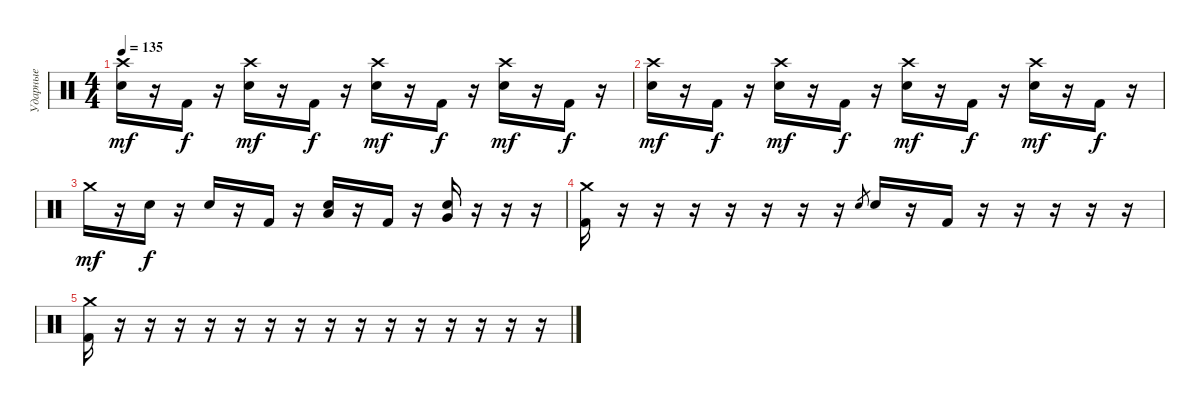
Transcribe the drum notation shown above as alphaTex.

\track ("Ударные" "Ударные") {instrument percussion}
\staff {score}
\articulation defaults
\ts (4 4)
\tempo 135
\clef neutral
\ks c
("Crash high (hit)" "Electric Snare (hit)").16{dy mf} r.16 "Kick (hit) 2".16{dy f} r.16 ("Crash high (hit)" "Electric Snare (hit)").16{dy mf} r.16 "Kick (hit) 2".16{dy f} r.16 ("Crash high (hit)" "Electric Snare (hit)").16{dy mf} r.16 "Kick (hit) 2".16{dy f} r.16 ("Crash high (hit)" "Electric Snare (hit)").16{dy mf} r.16 "Kick (hit) 2".16{dy f} r.16 |
("Crash high (hit)" "Electric Snare (hit)").16{dy mf} r.16 "Kick (hit) 2".16{dy f} r.16 ("Crash high (hit)" "Electric Snare (hit)").16{dy mf} r.16 "Kick (hit) 2".16{dy f} r.16 ("Crash high (hit)" "Electric Snare (hit)").16{dy mf} r.16 "Kick (hit) 2".16{dy f} r.16 ("Crash high (hit)" "Electric Snare (hit)").16{dy mf} r.16 "Kick (hit) 2".16{dy f} r.16 |
"Crash medium (hit)".16{dy mf} r.16 "Electric Snare (hit)".16{dy f} r.16 "Electric Snare (hit)".16 r.16 "Kick (hit) 2".16 r.16 ("Low Tom (hit)" "Electric Snare (hit)").16 r.16 "Kick (hit) 2".16 r.16 ("Very Low Tom (hit)" "Electric Snare (hit)").16 r.16 r.16 r.16 |
("Crash medium (hit)" "Kick (hit) 2").16 r.16 r.16 r.16 r.16 r.16 r.16 r.16 "Electric Snare (hit)".8{gr} "Electric Snare (hit)".16 r.16 "Kick (hit) 2".16 r.16 r.16 r.16 r.16 r.16 |
("Crash medium (hit)" "Kick (hit) 2").16 r.16 r.16 r.16 r.16 r.16 r.16 r.16 r.16 r.16 r.16 r.16 r.16 r.16 r.16 r.16
